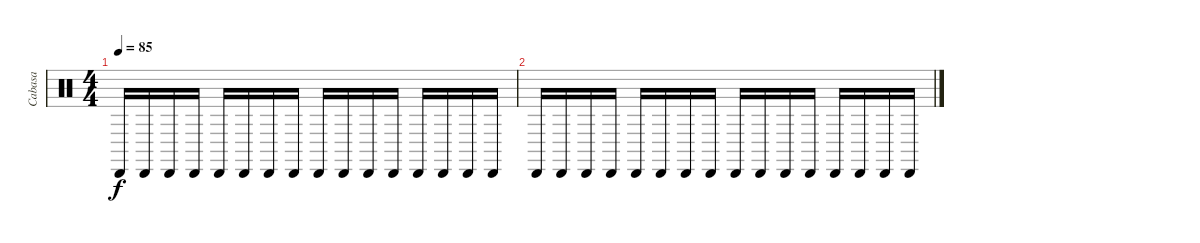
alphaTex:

\track ("Cabasa" "Cabasa") {instrument percussion}
\staff {score}
\articulation defaults
\ts (4 4)
\tempo 85
\clef neutral
\ks c "Cabasa (hit)".16{dy f volume 5} "Cabasa (hit)".16 "Cabasa (hit)".16 "Cabasa (hit)".16 "Cabasa (hit)".16 "Cabasa (hit)".16 "Cabasa (hit)".16 "Cabasa (hit)".16 "Cabasa (hit)".16 "Cabasa (hit)".16 "Cabasa (hit)".16 "Cabasa (hit)".16 "Cabasa (hit)".16 "Cabasa (hit)".16 "Cabasa (hit)".16 "Cabasa (hit)".16
|
"Cabasa (hit)".16{volume 0} "Cabasa (hit)".16 "Cabasa (hit)".16 "Cabasa (hit)".16 "Cabasa (hit)".16 "Cabasa (hit)".16 "Cabasa (hit)".16 "Cabasa (hit)".16 "Cabasa (hit)".16 "Cabasa (hit)".16 "Cabasa (hit)".16 "Cabasa (hit)".16 "Cabasa (hit)".16 "Cabasa (hit)".16 "Cabasa (hit)".16 "Cabasa (hit)".16
